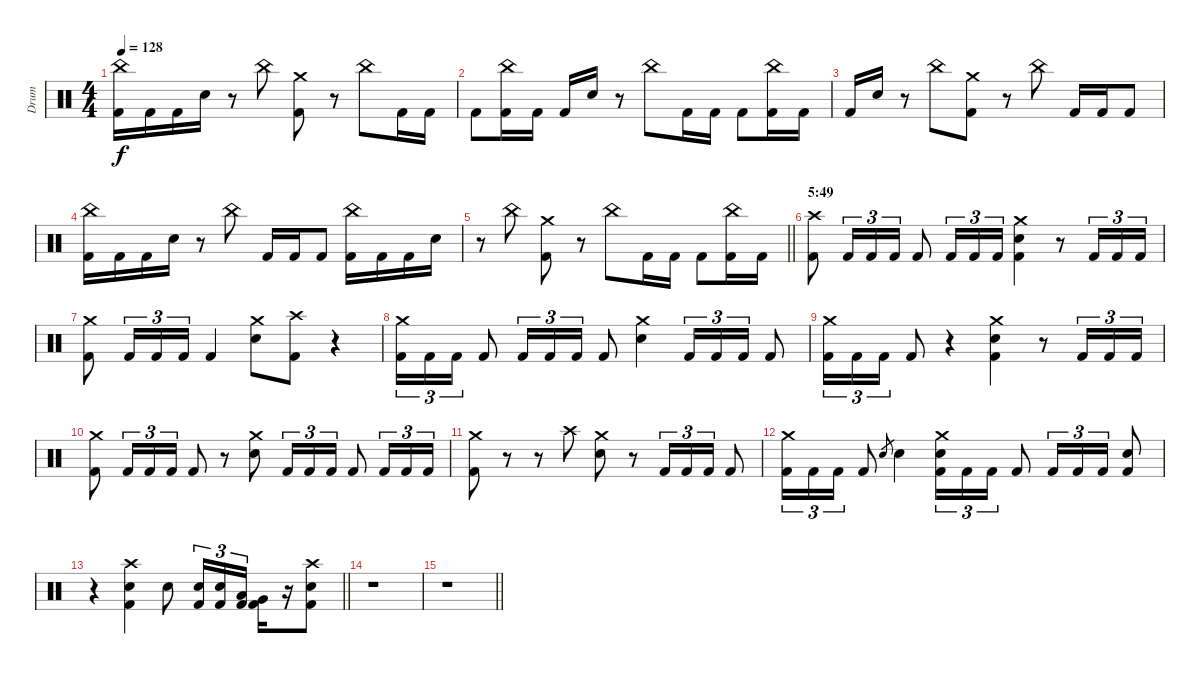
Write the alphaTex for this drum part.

\track ("Drum" "Drum") {instrument percussion}
\staff {score}
\articulation defaults
\ts (4 4)
\tempo 128
\clef neutral
\ks c
("China (hit)" "Kick (hit) 2").16{dy f} "Kick (hit) 2".16 "Kick (hit) 2".16 "Electric Snare (hit)".16 r.8 "China (hit)".8 ("Crash medium (hit)" "Kick (hit) 2").8 r.8 "China (hit)".8 "Kick (hit) 2".16 "Kick (hit) 2".16 |
"Kick (hit) 2".8 ("China (hit)" "Kick (hit) 2").16 "Kick (hit) 2".16 "Kick (hit) 2".16 "Electric Snare (hit)".16 r.8 "China (hit)".8 "Kick (hit) 2".16 "Kick (hit) 2".16 "Kick (hit) 2".8 ("China (hit)" "Kick (hit) 2").16 "Kick (hit) 2".16 |
"Kick (hit) 2".16 "Electric Snare (hit)".16 r.8 "China (hit)".8 ("Crash medium (hit)" "Kick (hit) 2").8 r.8 "China (hit)".8 "Kick (hit) 2".16 "Kick (hit) 2".16 "Kick (hit) 2".8 |
("China (hit)" "Kick (hit) 2").16 "Kick (hit) 2".16 "Kick (hit) 2".16 "Electric Snare (hit)".16 r.8 "China (hit)".8 "Kick (hit) 2".16 "Kick (hit) 2".16 "Kick (hit) 2".8 ("China (hit)" "Kick (hit) 2").16 "Kick (hit) 2".16 "Kick (hit) 2".16 "Electric Snare (hit)".16 |
\barLineRight lightlight
r.8 "China (hit)".8 ("Crash medium (hit)" "Kick (hit) 2").8 r.8 "China (hit)".8 "Kick (hit) 2".16 "Kick (hit) 2".16 "Kick (hit) 2".8 ("China (hit)" "Kick (hit) 2").16 "Kick (hit) 2".16 |
\section ("" "5:49")
("Crash high (hit)" "Kick (hit) 2").8 "Kick (hit) 2".16{tu (3 2)} "Kick (hit) 2".16{tu (3 2)} "Kick (hit) 2".16{tu (3 2)} "Kick (hit) 2".8 "Kick (hit) 2".16{tu (3 2)} "Kick (hit) 2".16{tu (3 2)} "Kick (hit) 2".16{tu (3 2)} ("Crash medium (hit)" "Electric Snare (hit)" "Kick (hit) 2").4 r.8 "Kick (hit) 2".16{tu (3 2)} "Kick (hit) 2".16{tu (3 2)} "Kick (hit) 2".16{tu (3 2)} |
("Crash medium (hit)" "Kick (hit) 2").8 "Kick (hit) 2".16{tu (3 2)} "Kick (hit) 2".16{tu (3 2)} "Kick (hit) 2".16{tu (3 2)} "Kick (hit) 2".4 ("Crash medium (hit)" "Electric Snare (hit)").8 ("Crash high (hit)" "Kick (hit) 2").8 r.4 |
("Crash medium (hit)" "Kick (hit) 2").16{tu (3 2)} "Kick (hit) 2".16{tu (3 2)} "Kick (hit) 2".16{tu (3 2)} "Kick (hit) 2".8 "Kick (hit) 2".16{tu (3 2)} "Kick (hit) 2".16{tu (3 2)} "Kick (hit) 2".16{tu (3 2)} "Kick (hit) 2".8 ("Crash medium (hit)" "Electric Snare (hit)").4 "Kick (hit) 2".16{tu (3 2)} "Kick (hit) 2".16{tu (3 2)} "Kick (hit) 2".16{tu (3 2)} "Kick (hit) 2".8 |
("Crash medium (hit)" "Kick (hit) 2").16{tu (3 2)} "Kick (hit) 2".16{tu (3 2)} "Kick (hit) 2".16{tu (3 2)} "Kick (hit) 2".8 r.4 ("Crash medium (hit)" "Electric Snare (hit)" "Kick (hit) 2").4 r.8 "Kick (hit) 2".16{tu (3 2)} "Kick (hit) 2".16{tu (3 2)} "Kick (hit) 2".16{tu (3 2)} |
("Crash medium (hit)" "Kick (hit) 2").8 "Kick (hit) 2".16{tu (3 2)} "Kick (hit) 2".16{tu (3 2)} "Kick (hit) 2".16{tu (3 2)} "Kick (hit) 2".8 r.8 ("Crash medium (hit)" "Electric Snare (hit)").8 "Kick (hit) 2".16{tu (3 2)} "Kick (hit) 2".16{tu (3 2)} "Kick (hit) 2".16{tu (3 2)} "Kick (hit) 2".8 "Kick (hit) 2".16{tu (3 2)} "Kick (hit) 2".16{tu (3 2)} "Kick (hit) 2".16{tu (3 2)} |
("Crash medium (hit)" "Kick (hit) 2").8 r.8 r.8 "Crash high (hit)".8 ("Crash medium (hit)" "Electric Snare (hit)").8 r.8 "Kick (hit) 2".16{tu (3 2)} "Kick (hit) 2".16{tu (3 2)} "Kick (hit) 2".16{tu (3 2)} "Kick (hit) 2".8 |
("Crash medium (hit)" "Kick (hit) 2").16{tu (3 2)} "Kick (hit) 2".16{tu (3 2)} "Kick (hit) 2".16{tu (3 2)} "Kick (hit) 2".8 "Electric Snare (hit)".8{gr} "Electric Snare (hit)".4 ("Crash medium (hit)" "Electric Snare (hit)" "Kick (hit) 2").16{tu (3 2)} "Kick (hit) 2".16{tu (3 2)} "Kick (hit) 2".16{tu (3 2)} "Kick (hit) 2".8 "Kick (hit) 2".16{tu (3 2)} "Kick (hit) 2".16{tu (3 2)} "Kick (hit) 2".16{tu (3 2)} ("Electric Snare (hit)" "Kick (hit) 2").8 |
\barLineRight lightlight
r.4 ("Crash high (hit)" "Electric Snare (hit)" "Kick (hit) 2").4 "Electric Snare (hit)".8 ("Electric Snare (hit)" "Kick (hit) 2").16{tu (3 2)} ("Electric Snare (hit)" "Kick (hit) 2").16{tu (3 2)} ("Low Tom (hit)" "Kick (hit) 2").16{tu (3 2)} ("Very Low Tom (hit)" "Kick (hit) 2").16 r.16 ("Crash high (hit)" "Electric Snare (hit)" "Kick (hit) 2").8 |
r.1 |
\barLineRight lightlight
r.1
